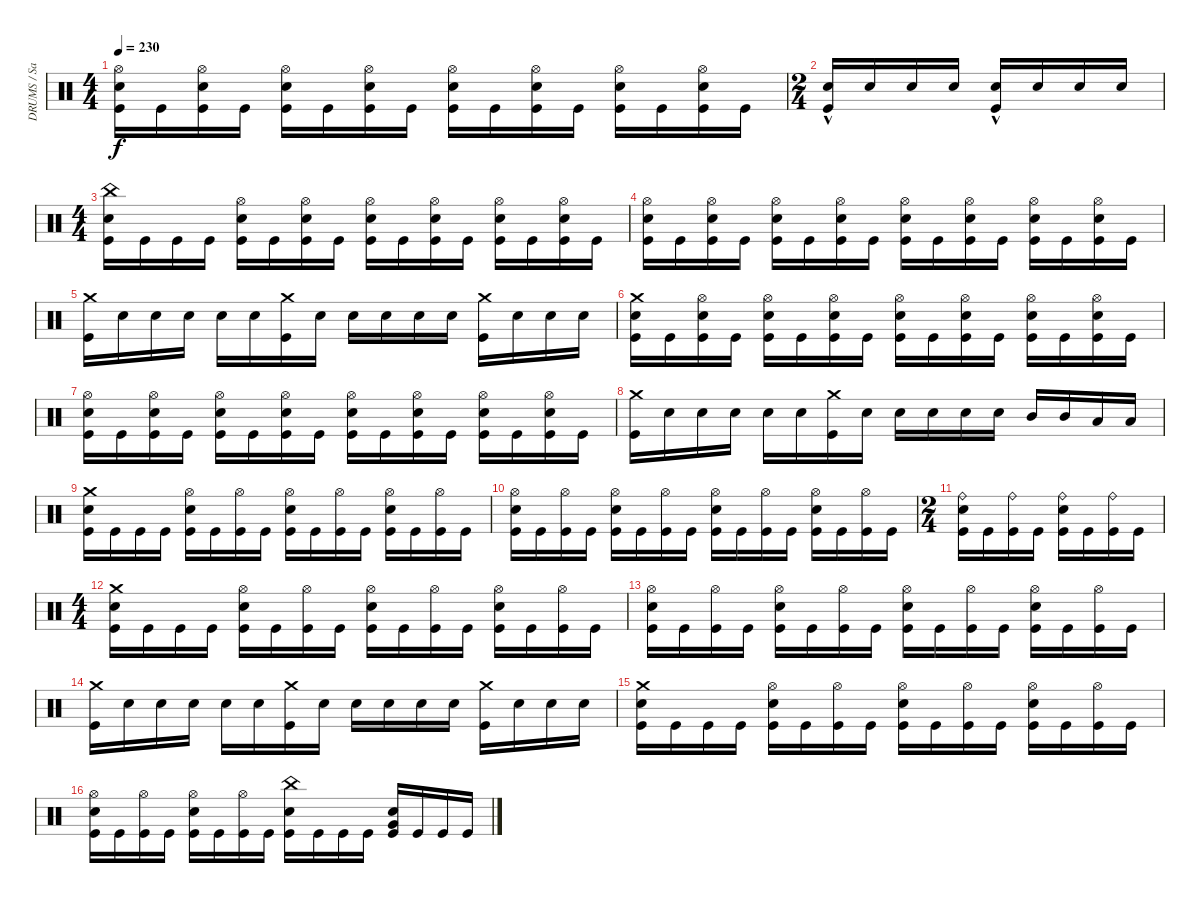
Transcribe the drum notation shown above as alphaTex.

\track ("DRUMS / Sasha" "DRUMS / Sa") {instrument percussion}
\staff {score}
\articulation defaults
\ts (4 4)
\tempo 230
\clef neutral
\ks c
("Kick (hit)" "Snare (hit) 2" "Hi-Hat (open)").16{dy f} "Kick (hit)".16 ("Kick (hit)" "Snare (hit) 2" "Hi-Hat (open)").16 "Kick (hit)".16 ("Kick (hit)" "Snare (hit) 2" "Hi-Hat (open)").16 "Kick (hit)".16 ("Kick (hit)" "Snare (hit) 2" "Hi-Hat (open)").16 "Kick (hit)".16 ("Kick (hit)" "Snare (hit) 2" "Hi-Hat (open)").16 "Kick (hit)".16 ("Kick (hit)" "Snare (hit) 2" "Hi-Hat (open)").16 "Kick (hit)".16 ("Kick (hit)" "Snare (hit) 2" "Hi-Hat (open)").16 "Kick (hit)".16 ("Kick (hit)" "Snare (hit) 2" "Hi-Hat (open)").16 "Kick (hit)".16 |
\ts (2 4)
("Snare (hit) 2"{hac} "Kick (hit)").16 "Snare (hit) 2".16 "Snare (hit) 2".16 "Snare (hit) 2".16 ("Snare (hit) 2"{hac} "Kick (hit)").16 "Snare (hit) 2".16 "Snare (hit) 2".16 "Snare (hit) 2".16 |
\ts (4 4)
("Kick (hit)" "Snare (hit) 2" "China (hit)").16 "Kick (hit)".16 "Kick (hit)".16 "Kick (hit)".16 ("Kick (hit)" "Snare (hit) 2" "Hi-Hat (open)").16 "Kick (hit)".16 ("Kick (hit)" "Snare (hit) 2" "Hi-Hat (open)").16 "Kick (hit)".16 ("Kick (hit)" "Snare (hit) 2" "Hi-Hat (open)").16 "Kick (hit)".16 ("Kick (hit)" "Snare (hit) 2" "Hi-Hat (open)").16 "Kick (hit)".16 ("Kick (hit)" "Snare (hit) 2" "Hi-Hat (open)").16 "Kick (hit)".16 ("Kick (hit)" "Snare (hit) 2" "Hi-Hat (open)").16 "Kick (hit)".16 |
("Kick (hit)" "Snare (hit) 2" "Hi-Hat (open)").16 "Kick (hit)".16 ("Kick (hit)" "Snare (hit) 2" "Hi-Hat (open)").16 "Kick (hit)".16 ("Kick (hit)" "Snare (hit) 2" "Hi-Hat (open)").16 "Kick (hit)".16 ("Kick (hit)" "Snare (hit) 2" "Hi-Hat (open)").16 "Kick (hit)".16 ("Kick (hit)" "Snare (hit) 2" "Hi-Hat (open)").16 "Kick (hit)".16 ("Kick (hit)" "Snare (hit) 2" "Hi-Hat (open)").16 "Kick (hit)".16 ("Kick (hit)" "Snare (hit) 2" "Hi-Hat (open)").16 "Kick (hit)".16 ("Kick (hit)" "Snare (hit) 2" "Hi-Hat (open)").16 "Kick (hit)".16 |
("Kick (hit)" "Crash medium (hit)").16 "Snare (hit) 2".16 "Snare (hit) 2".16 "Snare (hit) 2".16 "Snare (hit) 2".16 "Snare (hit) 2".16 ("Kick (hit)" "Crash medium (hit)").16 "Snare (hit) 2".16 "Snare (hit) 2".16 "Snare (hit) 2".16 "Snare (hit) 2".16 "Snare (hit) 2".16 ("Kick (hit)" "Crash medium (hit)").16 "Snare (hit) 2".16 "Snare (hit) 2".16 "Snare (hit) 2".16 |
("Kick (hit)" "Snare (hit) 2" "Crash medium (hit)").16 "Kick (hit)".16 ("Kick (hit)" "Snare (hit) 2" "Hi-Hat (open)").16 "Kick (hit)".16 ("Kick (hit)" "Snare (hit) 2" "Hi-Hat (open)").16 "Kick (hit)".16 ("Kick (hit)" "Snare (hit) 2" "Hi-Hat (open)").16 "Kick (hit)".16 ("Kick (hit)" "Snare (hit) 2" "Hi-Hat (open)").16 "Kick (hit)".16 ("Kick (hit)" "Snare (hit) 2" "Hi-Hat (open)").16 "Kick (hit)".16 ("Kick (hit)" "Snare (hit) 2" "Hi-Hat (open)").16 "Kick (hit)".16 ("Kick (hit)" "Snare (hit) 2" "Hi-Hat (open)").16 "Kick (hit)".16 |
("Kick (hit)" "Snare (hit) 2" "Hi-Hat (open)").16 "Kick (hit)".16 ("Kick (hit)" "Snare (hit) 2" "Hi-Hat (open)").16 "Kick (hit)".16 ("Kick (hit)" "Snare (hit) 2" "Hi-Hat (open)").16 "Kick (hit)".16 ("Kick (hit)" "Snare (hit) 2" "Hi-Hat (open)").16 "Kick (hit)".16 ("Kick (hit)" "Snare (hit) 2" "Hi-Hat (open)").16 "Kick (hit)".16 ("Kick (hit)" "Snare (hit) 2" "Hi-Hat (open)").16 "Kick (hit)".16 ("Kick (hit)" "Snare (hit) 2" "Hi-Hat (open)").16 "Kick (hit)".16 ("Kick (hit)" "Snare (hit) 2" "Hi-Hat (open)").16 "Kick (hit)".16 |
("Kick (hit)" "Crash medium (hit)").16 "Snare (hit) 2".16 "Snare (hit) 2".16 "Snare (hit) 2".16 "Snare (hit) 2".16 "Snare (hit) 2".16 ("Kick (hit)" "Crash medium (hit)").16 "Snare (hit) 2".16 "Snare (hit) 2".16 "Snare (hit) 2".16 "Snare (hit) 2".16 "Snare (hit) 2".16 "Mid Tom (hit)".16 "Mid Tom (hit)".16 "Low Tom (hit)".16 "Low Tom (hit)".16 |
("Kick (hit)" "Crash medium (hit)" "Snare (hit) 2").16 "Kick (hit)".16 "Kick (hit)".16 "Kick (hit)".16 ("Kick (hit)" "Hi-Hat (open)" "Snare (hit) 2").16 "Kick (hit)".16 ("Kick (hit)" "Hi-Hat (open)").16 "Kick (hit)".16 ("Kick (hit)" "Hi-Hat (open)" "Snare (hit) 2").16 "Kick (hit)".16 ("Kick (hit)" "Hi-Hat (open)").16 "Kick (hit)".16 ("Kick (hit)" "Hi-Hat (open)" "Snare (hit) 2").16 "Kick (hit)".16 ("Kick (hit)" "Hi-Hat (open)").16 "Kick (hit)".16 |
("Kick (hit)" "Hi-Hat (open)" "Snare (hit) 2").16 "Kick (hit)".16 ("Kick (hit)" "Hi-Hat (open)").16 "Kick (hit)".16 ("Kick (hit)" "Hi-Hat (open)" "Snare (hit) 2").16 "Kick (hit)".16 ("Kick (hit)" "Hi-Hat (open)").16 "Kick (hit)".16 ("Kick (hit)" "Hi-Hat (open)" "Snare (hit) 2").16 "Kick (hit)".16 ("Kick (hit)" "Hi-Hat (open)").16 "Kick (hit)".16 ("Kick (hit)" "Hi-Hat (open)" "Snare (hit) 2").16 "Kick (hit)".16 ("Kick (hit)" "Hi-Hat (open)").16 "Kick (hit)".16 |
\ts (2 4)
("Kick (hit)" "Snare (hit) 2" "Ride (bell)").16 "Kick (hit)".16 ("Kick (hit)" "Ride (bell)").16 "Kick (hit)".16 ("Kick (hit)" "Snare (hit) 2" "Ride (bell)").16 "Kick (hit)".16 ("Kick (hit)" "Ride (bell)").16 "Kick (hit)".16 |
\ts (4 4)
("Kick (hit)" "Crash medium (hit)" "Snare (hit) 2").16 "Kick (hit)".16 "Kick (hit)".16 "Kick (hit)".16 ("Kick (hit)" "Hi-Hat (open)" "Snare (hit) 2").16 "Kick (hit)".16 ("Kick (hit)" "Hi-Hat (open)").16 "Kick (hit)".16 ("Kick (hit)" "Hi-Hat (open)" "Snare (hit) 2").16 "Kick (hit)".16 ("Kick (hit)" "Hi-Hat (open)").16 "Kick (hit)".16 ("Kick (hit)" "Hi-Hat (open)" "Snare (hit) 2").16 "Kick (hit)".16 ("Kick (hit)" "Hi-Hat (open)").16 "Kick (hit)".16 |
("Kick (hit)" "Hi-Hat (open)" "Snare (hit) 2").16 "Kick (hit)".16 ("Kick (hit)" "Hi-Hat (open)").16 "Kick (hit)".16 ("Kick (hit)" "Hi-Hat (open)" "Snare (hit) 2").16 "Kick (hit)".16 ("Kick (hit)" "Hi-Hat (open)").16 "Kick (hit)".16 ("Kick (hit)" "Hi-Hat (open)" "Snare (hit) 2").16 "Kick (hit)".16 ("Kick (hit)" "Hi-Hat (open)").16 "Kick (hit)".16 ("Kick (hit)" "Hi-Hat (open)" "Snare (hit) 2").16 "Kick (hit)".16 ("Kick (hit)" "Hi-Hat (open)").16 "Kick (hit)".16 |
("Kick (hit)" "Crash medium (hit)").16 "Snare (hit) 2".16 "Snare (hit) 2".16 "Snare (hit) 2".16 "Snare (hit) 2".16 "Snare (hit) 2".16 ("Kick (hit)" "Crash medium (hit)").16 "Snare (hit) 2".16 "Snare (hit) 2".16 "Snare (hit) 2".16 "Snare (hit) 2".16 "Snare (hit) 2".16 ("Kick (hit)" "Crash medium (hit)").16 "Snare (hit) 2".16 "Snare (hit) 2".16 "Snare (hit) 2".16 |
("Kick (hit)" "Crash medium (hit)" "Snare (hit) 2").16 "Kick (hit)".16 "Kick (hit)".16 "Kick (hit)".16 ("Kick (hit)" "Hi-Hat (open)" "Snare (hit) 2").16 "Kick (hit)".16 ("Kick (hit)" "Hi-Hat (open)").16 "Kick (hit)".16 ("Kick (hit)" "Hi-Hat (open)" "Snare (hit) 2").16 "Kick (hit)".16 ("Kick (hit)" "Hi-Hat (open)").16 "Kick (hit)".16 ("Kick (hit)" "Hi-Hat (open)" "Snare (hit) 2").16 "Kick (hit)".16 ("Kick (hit)" "Hi-Hat (open)").16 "Kick (hit)".16 |
("Kick (hit)" "Hi-Hat (open)" "Snare (hit) 2").16 "Kick (hit)".16 ("Kick (hit)" "Hi-Hat (open)").16 "Kick (hit)".16 ("Kick (hit)" "Hi-Hat (open)" "Snare (hit) 2").16 "Kick (hit)".16 ("Kick (hit)" "Hi-Hat (open)").16 "Kick (hit)".16 ("Kick (hit)" "Snare (hit) 2" "China (hit)").16 "Kick (hit)".16 "Kick (hit)".16 "Kick (hit)".16 ("Kick (hit)" "Snare (hit) 2" "Very Low Tom (hit)").16 "Kick (hit)".16 "Kick (hit)".16 "Kick (hit)".16
